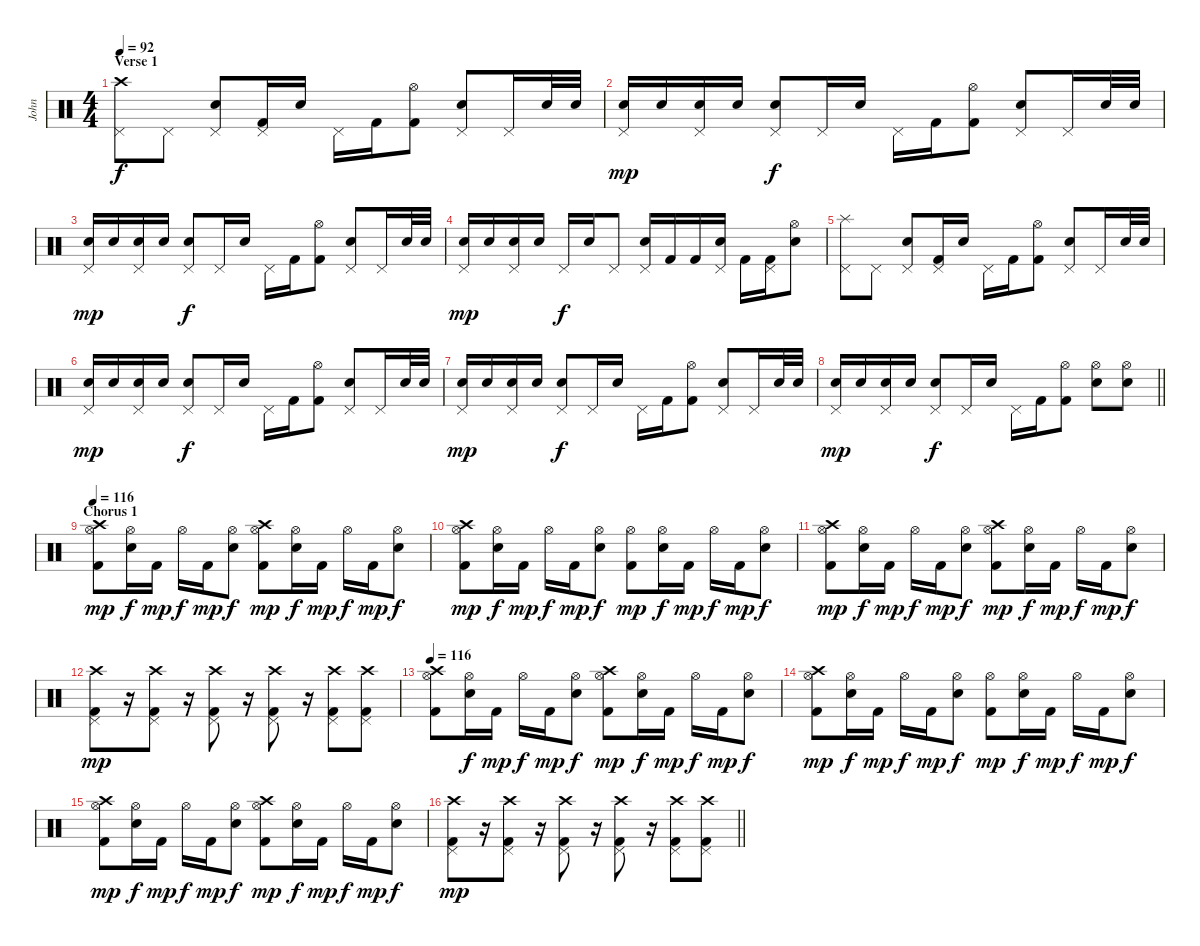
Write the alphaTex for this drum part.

\track ("John" "John") {instrument percussion}
\staff {score}
\articulation defaults
\ts (4 4)
\section ("" "Verse 1")
\tempo 92
\clef neutral
\ks c
("Crash high (hit)" "Pedal Hi-Hat (hit)").8{dy f} "Pedal Hi-Hat (hit)".8 ("Snare (hit) 2" "Pedal Hi-Hat (hit)").8 ("Kick (hit) 2" "Pedal Hi-Hat (hit)").16 "Snare (hit) 2".16 "Pedal Hi-Hat (hit)".16 "Kick (hit) 2".16 ("Kick (hit) 2" "Hi-Hat (open)").8 ("Snare (hit) 2" "Pedal Hi-Hat (hit)").8 "Pedal Hi-Hat (hit)".16 "Snare (hit) 2".32 "Snare (hit) 2".32 |
("Snare (hit) 2" "Pedal Hi-Hat (hit)").16{dy mp} "Snare (hit) 2".16 ("Snare (hit) 2" "Pedal Hi-Hat (hit)").16 "Snare (hit) 2".16 ("Snare (hit) 2" "Pedal Hi-Hat (hit)").8{dy f} "Pedal Hi-Hat (hit)".16 "Snare (hit) 2".16 "Pedal Hi-Hat (hit)".16 "Kick (hit) 2".16 ("Kick (hit) 2" "Hi-Hat (open)").8 ("Snare (hit) 2" "Pedal Hi-Hat (hit)").8 "Pedal Hi-Hat (hit)".16 "Snare (hit) 2".32 "Snare (hit) 2".32 |
("Snare (hit) 2" "Pedal Hi-Hat (hit)").16{dy mp} "Snare (hit) 2".16 ("Snare (hit) 2" "Pedal Hi-Hat (hit)").16 "Snare (hit) 2".16 ("Snare (hit) 2" "Pedal Hi-Hat (hit)").8{dy f} "Pedal Hi-Hat (hit)".16 "Snare (hit) 2".16 "Pedal Hi-Hat (hit)".16 "Kick (hit) 2".16 ("Kick (hit) 2" "Hi-Hat (open)").8 ("Snare (hit) 2" "Pedal Hi-Hat (hit)").8 "Pedal Hi-Hat (hit)".16 "Snare (hit) 2".32 "Snare (hit) 2".32 |
("Snare (hit) 2" "Pedal Hi-Hat (hit)").16{dy mp} "Snare (hit) 2".16 ("Snare (hit) 2" "Pedal Hi-Hat (hit)").16 "Snare (hit) 2".16 "Pedal Hi-Hat (hit)".16{dy f} "Snare (hit) 2".16 "Pedal Hi-Hat (hit)".8 ("Snare (hit) 2" "Pedal Hi-Hat (hit)").16 "Kick (hit) 2".16 "Kick (hit) 2".16 ("Snare (hit) 2" "Pedal Hi-Hat (hit)").16 "Kick (hit) 2".16 ("Kick (hit) 2" "Pedal Hi-Hat (hit)").16 ("Snare (hit) 2" "Hi-Hat (open)").8 |
("Splash (hit)" "Pedal Hi-Hat (hit)").8 "Pedal Hi-Hat (hit)".8 ("Snare (hit) 2" "Pedal Hi-Hat (hit)").8 ("Kick (hit) 2" "Pedal Hi-Hat (hit)").16 "Snare (hit) 2".16 "Pedal Hi-Hat (hit)".16 "Kick (hit) 2".16 ("Kick (hit) 2" "Hi-Hat (open)").8 ("Snare (hit) 2" "Pedal Hi-Hat (hit)").8 "Pedal Hi-Hat (hit)".16 "Snare (hit) 2".32 "Snare (hit) 2".32 |
("Snare (hit) 2" "Pedal Hi-Hat (hit)").16{dy mp} "Snare (hit) 2".16 ("Snare (hit) 2" "Pedal Hi-Hat (hit)").16 "Snare (hit) 2".16 ("Snare (hit) 2" "Pedal Hi-Hat (hit)").8{dy f} "Pedal Hi-Hat (hit)".16 "Snare (hit) 2".16 "Pedal Hi-Hat (hit)".16 "Kick (hit) 2".16 ("Kick (hit) 2" "Hi-Hat (open)").8 ("Snare (hit) 2" "Pedal Hi-Hat (hit)").8 "Pedal Hi-Hat (hit)".16 "Snare (hit) 2".32 "Snare (hit) 2".32 |
("Snare (hit) 2" "Pedal Hi-Hat (hit)").16{dy mp} "Snare (hit) 2".16 ("Snare (hit) 2" "Pedal Hi-Hat (hit)").16 "Snare (hit) 2".16 ("Snare (hit) 2" "Pedal Hi-Hat (hit)").8{dy f} "Pedal Hi-Hat (hit)".16 "Snare (hit) 2".16 "Pedal Hi-Hat (hit)".16 "Kick (hit) 2".16 ("Kick (hit) 2" "Hi-Hat (open)").8 ("Snare (hit) 2" "Pedal Hi-Hat (hit)").8 "Pedal Hi-Hat (hit)".16 "Snare (hit) 2".32 "Snare (hit) 2".32 |
\barLineRight lightlight
("Snare (hit) 2" "Pedal Hi-Hat (hit)").16{dy mp} "Snare (hit) 2".16 ("Snare (hit) 2" "Pedal Hi-Hat (hit)").16 "Snare (hit) 2".16 ("Snare (hit) 2" "Pedal Hi-Hat (hit)").8{dy f} "Pedal Hi-Hat (hit)".16 "Snare (hit) 2".16 "Pedal Hi-Hat (hit)".16 "Kick (hit) 2".16 ("Kick (hit) 2" "Hi-Hat (open)").8 ("Snare (hit) 2" "Hi-Hat (open)").8 ("Snare (hit) 2" "Hi-Hat (open)").8 |
\section ("" "Chorus 1")
\tempo 116
("Crash high (hit)" "Kick (hit) 2" "Hi-Hat (open)").8{dy mp} ("Snare (hit) 2" "Hi-Hat (open)").16{dy f} "Kick (hit) 2".16{dy mp} "Hi-Hat (open)".16{dy f} "Kick (hit) 2".16{dy mp} ("Snare (hit) 2" "Hi-Hat (open)").8{dy f} ("Crash high (hit)" "Kick (hit) 2" "Hi-Hat (open)").8{dy mp} ("Snare (hit) 2" "Hi-Hat (open)").16{dy f} "Kick (hit) 2".16{dy mp} "Hi-Hat (open)".16{dy f} "Kick (hit) 2".16{dy mp} ("Snare (hit) 2" "Hi-Hat (open)").8{dy f} |
("Crash high (hit)" "Kick (hit) 2" "Hi-Hat (open)").8{dy mp} ("Snare (hit) 2" "Hi-Hat (open)").16{dy f} "Kick (hit) 2".16{dy mp} "Hi-Hat (open)".16{dy f} "Kick (hit) 2".16{dy mp} ("Snare (hit) 2" "Hi-Hat (open)").8{dy f} ("Kick (hit) 2" "Hi-Hat (open)").8{dy mp} ("Snare (hit) 2" "Hi-Hat (open)").16{dy f} "Kick (hit) 2".16{dy mp} "Hi-Hat (open)".16{dy f} "Kick (hit) 2".16{dy mp} ("Snare (hit) 2" "Hi-Hat (open)").8{dy f} |
("Crash high (hit)" "Kick (hit) 2" "Hi-Hat (open)").8{dy mp} ("Snare (hit) 2" "Hi-Hat (open)").16{dy f} "Kick (hit) 2".16{dy mp} "Hi-Hat (open)".16{dy f} "Kick (hit) 2".16{dy mp} ("Snare (hit) 2" "Hi-Hat (open)").8{dy f} ("Crash high (hit)" "Kick (hit) 2" "Hi-Hat (open)").8{dy mp} ("Snare (hit) 2" "Hi-Hat (open)").16{dy f} "Kick (hit) 2".16{dy mp} "Hi-Hat (open)".16{dy f} "Kick (hit) 2".16{dy mp} ("Snare (hit) 2" "Hi-Hat (open)").8{dy f} |
("Crash high (hit)" "Kick (hit) 2" "Pedal Hi-Hat (hit)").8{dy mp} r.16 ("Crash high (hit)" "Kick (hit) 2" "Pedal Hi-Hat (hit)").8 r.16 ("Crash high (hit)" "Kick (hit) 2" "Pedal Hi-Hat (hit)").8 r.16 ("Crash high (hit)" "Kick (hit) 2" "Pedal Hi-Hat (hit)").8 r.16 ("Crash high (hit)" "Kick (hit) 2" "Pedal Hi-Hat (hit)").8 ("Crash high (hit)" "Kick (hit) 2" "Pedal Hi-Hat (hit)").8 |
\tempo 116
("Crash high (hit)" "Kick (hit) 2" "Hi-Hat (open)").8 ("Snare (hit) 2" "Hi-Hat (open)").16{dy f} "Kick (hit) 2".16{dy mp} "Hi-Hat (open)".16{dy f} "Kick (hit) 2".16{dy mp} ("Snare (hit) 2" "Hi-Hat (open)").8{dy f} ("Crash high (hit)" "Kick (hit) 2" "Hi-Hat (open)").8{dy mp} ("Snare (hit) 2" "Hi-Hat (open)").16{dy f} "Kick (hit) 2".16{dy mp} "Hi-Hat (open)".16{dy f} "Kick (hit) 2".16{dy mp} ("Snare (hit) 2" "Hi-Hat (open)").8{dy f} |
("Crash high (hit)" "Kick (hit) 2" "Hi-Hat (open)").8{dy mp} ("Snare (hit) 2" "Hi-Hat (open)").16{dy f} "Kick (hit) 2".16{dy mp} "Hi-Hat (open)".16{dy f} "Kick (hit) 2".16{dy mp} ("Snare (hit) 2" "Hi-Hat (open)").8{dy f} ("Kick (hit) 2" "Hi-Hat (open)").8{dy mp} ("Snare (hit) 2" "Hi-Hat (open)").16{dy f} "Kick (hit) 2".16{dy mp} "Hi-Hat (open)".16{dy f} "Kick (hit) 2".16{dy mp} ("Snare (hit) 2" "Hi-Hat (open)").8{dy f} |
("Crash high (hit)" "Kick (hit) 2" "Hi-Hat (open)").8{dy mp} ("Snare (hit) 2" "Hi-Hat (open)").16{dy f} "Kick (hit) 2".16{dy mp} "Hi-Hat (open)".16{dy f} "Kick (hit) 2".16{dy mp} ("Snare (hit) 2" "Hi-Hat (open)").8{dy f} ("Crash high (hit)" "Kick (hit) 2" "Hi-Hat (open)").8{dy mp} ("Snare (hit) 2" "Hi-Hat (open)").16{dy f} "Kick (hit) 2".16{dy mp} "Hi-Hat (open)".16{dy f} "Kick (hit) 2".16{dy mp} ("Snare (hit) 2" "Hi-Hat (open)").8{dy f} |
\barLineRight lightlight
("Crash high (hit)" "Kick (hit) 2" "Pedal Hi-Hat (hit)").8{dy mp} r.16 ("Crash high (hit)" "Kick (hit) 2" "Pedal Hi-Hat (hit)").8 r.16 ("Crash high (hit)" "Kick (hit) 2" "Pedal Hi-Hat (hit)").8 r.16 ("Crash high (hit)" "Kick (hit) 2" "Pedal Hi-Hat (hit)").8 r.16 ("Crash high (hit)" "Kick (hit) 2" "Pedal Hi-Hat (hit)").8 ("Crash high (hit)" "Kick (hit) 2" "Pedal Hi-Hat (hit)").8
